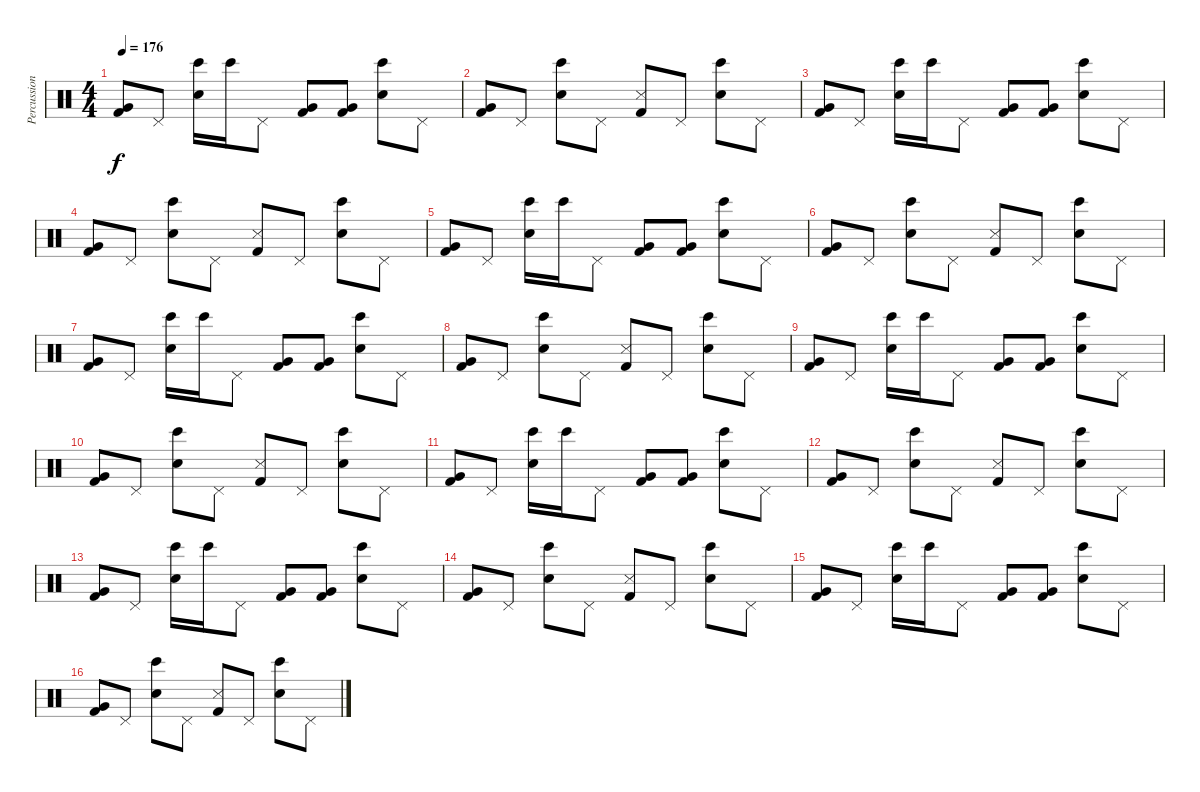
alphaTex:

\track ("Percussions" "Percussion") {instrument percussion}
\staff {score}
\articulation defaults
\ts (4 4)
\tempo 176
\clef neutral
\ks c
("Kick (hit) 2" "Very Low Tom (hit)").8{dy f} "Pedal Hi-Hat (hit)".8 ("Snare (hit) 2" "Bongo High (hit)").16 "Bongo High (hit)".16 "Pedal Hi-Hat (hit)".8 ("Kick (hit) 2" "Very Low Tom (hit)").8 ("Kick (hit) 2" "Very Low Tom (hit)").8 ("Snare (hit) 2" "Bongo High (hit)").8 "Pedal Hi-Hat (hit)".8 |
("Kick (hit) 2" "Very Low Tom (hit)").8 "Pedal Hi-Hat (hit)".8 ("Snare (hit) 2" "Bongo High (hit)").8 "Pedal Hi-Hat (hit)".8 ("Kick (hit) 2" "Snare (side stick) 3").8 "Pedal Hi-Hat (hit)".8 ("Snare (hit) 2" "Bongo High (hit)").8 "Pedal Hi-Hat (hit)".8 |
("Kick (hit) 2" "Very Low Tom (hit)").8 "Pedal Hi-Hat (hit)".8 ("Snare (hit) 2" "Bongo High (hit)").16 "Bongo High (hit)".16 "Pedal Hi-Hat (hit)".8 ("Kick (hit) 2" "Very Low Tom (hit)").8 ("Kick (hit) 2" "Very Low Tom (hit)").8 ("Snare (hit) 2" "Bongo High (hit)").8 "Pedal Hi-Hat (hit)".8 |
("Kick (hit) 2" "Very Low Tom (hit)").8 "Pedal Hi-Hat (hit)".8 ("Snare (hit) 2" "Bongo High (hit)").8 "Pedal Hi-Hat (hit)".8 ("Kick (hit) 2" "Snare (side stick) 3").8 "Pedal Hi-Hat (hit)".8 ("Snare (hit) 2" "Bongo High (hit)").8 "Pedal Hi-Hat (hit)".8 |
("Kick (hit) 2" "Very Low Tom (hit)").8 "Pedal Hi-Hat (hit)".8 ("Snare (hit) 2" "Bongo High (hit)").16 "Bongo High (hit)".16 "Pedal Hi-Hat (hit)".8 ("Kick (hit) 2" "Very Low Tom (hit)").8 ("Kick (hit) 2" "Very Low Tom (hit)").8 ("Snare (hit) 2" "Bongo High (hit)").8 "Pedal Hi-Hat (hit)".8 |
("Kick (hit) 2" "Very Low Tom (hit)").8 "Pedal Hi-Hat (hit)".8 ("Snare (hit) 2" "Bongo High (hit)").8 "Pedal Hi-Hat (hit)".8 ("Kick (hit) 2" "Snare (side stick) 3").8 "Pedal Hi-Hat (hit)".8 ("Snare (hit) 2" "Bongo High (hit)").8 "Pedal Hi-Hat (hit)".8 |
("Kick (hit) 2" "Very Low Tom (hit)").8 "Pedal Hi-Hat (hit)".8 ("Snare (hit) 2" "Bongo High (hit)").16 "Bongo High (hit)".16 "Pedal Hi-Hat (hit)".8 ("Kick (hit) 2" "Very Low Tom (hit)").8 ("Kick (hit) 2" "Very Low Tom (hit)").8 ("Snare (hit) 2" "Bongo High (hit)").8 "Pedal Hi-Hat (hit)".8 |
("Kick (hit) 2" "Very Low Tom (hit)").8 "Pedal Hi-Hat (hit)".8 ("Snare (hit) 2" "Bongo High (hit)").8 "Pedal Hi-Hat (hit)".8 ("Kick (hit) 2" "Snare (side stick) 3").8 "Pedal Hi-Hat (hit)".8 ("Snare (hit) 2" "Bongo High (hit)").8 "Pedal Hi-Hat (hit)".8 |
("Kick (hit) 2" "Very Low Tom (hit)").8 "Pedal Hi-Hat (hit)".8 ("Snare (hit) 2" "Bongo High (hit)").16 "Bongo High (hit)".16 "Pedal Hi-Hat (hit)".8 ("Kick (hit) 2" "Very Low Tom (hit)").8 ("Kick (hit) 2" "Very Low Tom (hit)").8 ("Snare (hit) 2" "Bongo High (hit)").8 "Pedal Hi-Hat (hit)".8 |
("Kick (hit) 2" "Very Low Tom (hit)").8 "Pedal Hi-Hat (hit)".8 ("Snare (hit) 2" "Bongo High (hit)").8 "Pedal Hi-Hat (hit)".8 ("Kick (hit) 2" "Snare (side stick) 3").8 "Pedal Hi-Hat (hit)".8 ("Snare (hit) 2" "Bongo High (hit)").8 "Pedal Hi-Hat (hit)".8 |
("Kick (hit) 2" "Very Low Tom (hit)").8 "Pedal Hi-Hat (hit)".8 ("Snare (hit) 2" "Bongo High (hit)").16 "Bongo High (hit)".16 "Pedal Hi-Hat (hit)".8 ("Kick (hit) 2" "Very Low Tom (hit)").8 ("Kick (hit) 2" "Very Low Tom (hit)").8 ("Snare (hit) 2" "Bongo High (hit)").8 "Pedal Hi-Hat (hit)".8 |
("Kick (hit) 2" "Very Low Tom (hit)").8 "Pedal Hi-Hat (hit)".8 ("Snare (hit) 2" "Bongo High (hit)").8 "Pedal Hi-Hat (hit)".8 ("Kick (hit) 2" "Snare (side stick) 3").8 "Pedal Hi-Hat (hit)".8 ("Snare (hit) 2" "Bongo High (hit)").8 "Pedal Hi-Hat (hit)".8 |
("Kick (hit) 2" "Very Low Tom (hit)").8 "Pedal Hi-Hat (hit)".8 ("Snare (hit) 2" "Bongo High (hit)").16 "Bongo High (hit)".16 "Pedal Hi-Hat (hit)".8 ("Kick (hit) 2" "Very Low Tom (hit)").8 ("Kick (hit) 2" "Very Low Tom (hit)").8 ("Snare (hit) 2" "Bongo High (hit)").8 "Pedal Hi-Hat (hit)".8 |
("Kick (hit) 2" "Very Low Tom (hit)").8 "Pedal Hi-Hat (hit)".8 ("Snare (hit) 2" "Bongo High (hit)").8 "Pedal Hi-Hat (hit)".8 ("Kick (hit) 2" "Snare (side stick) 3").8 "Pedal Hi-Hat (hit)".8 ("Snare (hit) 2" "Bongo High (hit)").8 "Pedal Hi-Hat (hit)".8 |
("Kick (hit) 2" "Very Low Tom (hit)").8 "Pedal Hi-Hat (hit)".8 ("Snare (hit) 2" "Bongo High (hit)").16 "Bongo High (hit)".16 "Pedal Hi-Hat (hit)".8 ("Kick (hit) 2" "Very Low Tom (hit)").8 ("Kick (hit) 2" "Very Low Tom (hit)").8 ("Snare (hit) 2" "Bongo High (hit)").8 "Pedal Hi-Hat (hit)".8 |
("Kick (hit) 2" "Very Low Tom (hit)").8 "Pedal Hi-Hat (hit)".8 ("Snare (hit) 2" "Bongo High (hit)").8 "Pedal Hi-Hat (hit)".8 ("Kick (hit) 2" "Snare (side stick) 3").8 "Pedal Hi-Hat (hit)".8 ("Snare (hit) 2" "Bongo High (hit)").8 "Pedal Hi-Hat (hit)".8
